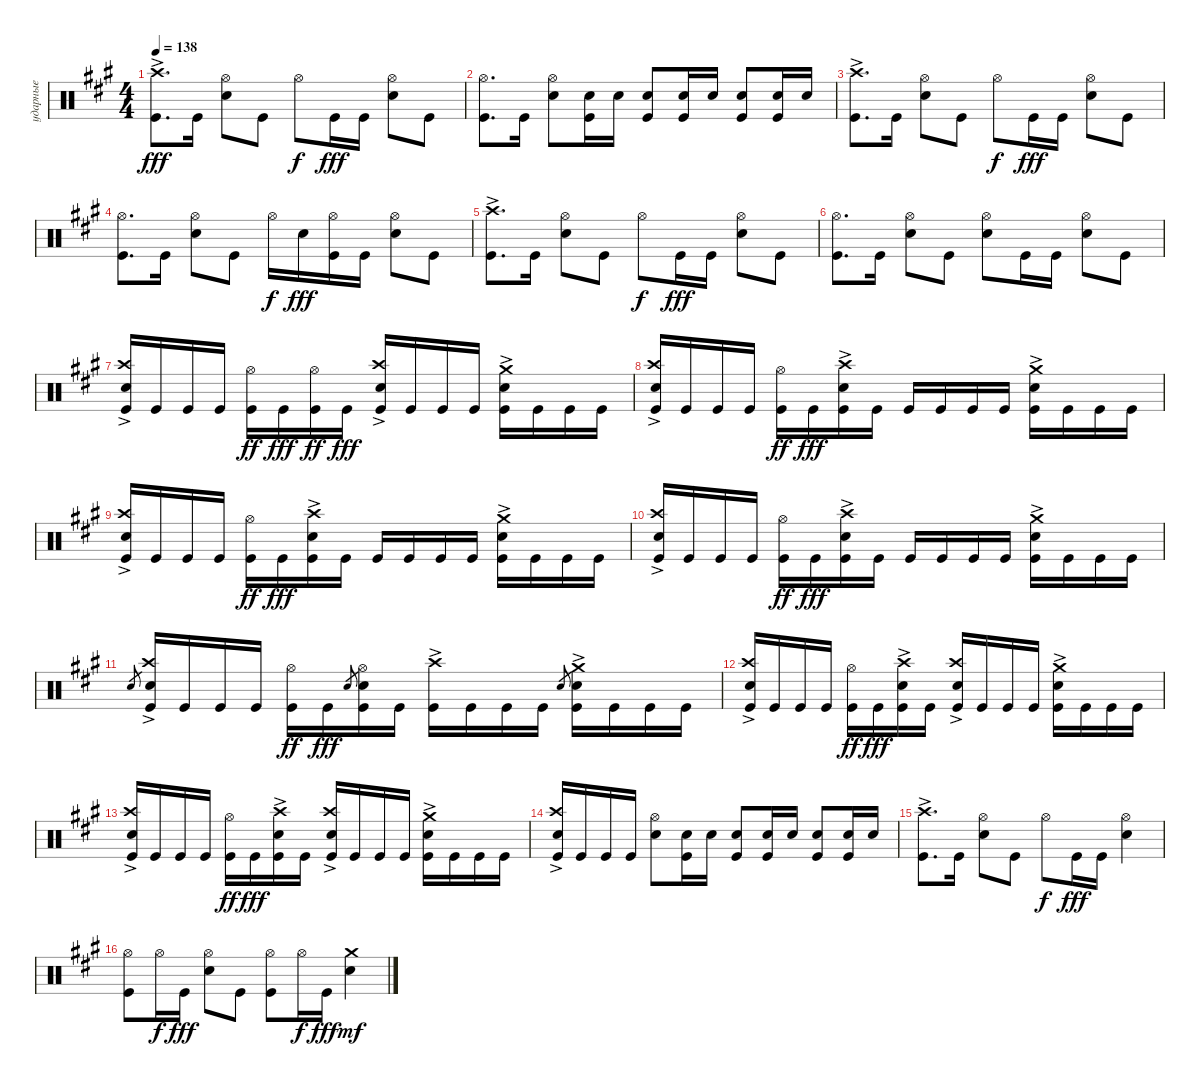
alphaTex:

\track ("ударные" "ударные") {instrument percussion}
\staff {score}
\articulation defaults
\ts (4 4)
\tempo 138
\clef neutral
\ks f#minor
("Kick (hit)" "Crash high (hit)"{ac}).8{d dy fff} "Kick (hit)".16 ("Snare (hit) 2" "Hi-Hat (open)").8 "Kick (hit)".8 "Hi-Hat (open)".8{dy f} "Kick (hit)".16{dy fff} "Kick (hit)".16 ("Snare (hit) 2" "Hi-Hat (open)").8 "Kick (hit)".8 |
("Kick (hit)" "Hi-Hat (open)").8{d} "Kick (hit)".16 ("Snare (hit) 2" "Hi-Hat (open)").8 ("Snare (hit) 2" "Kick (hit)").16 "Snare (hit) 2".16 ("Snare (hit) 2" "Kick (hit)").8 ("Snare (hit) 2" "Kick (hit)").16 "Snare (hit) 2".16 ("Snare (hit) 2" "Kick (hit)").8 ("Snare (hit) 2" "Kick (hit)").16 "Snare (hit) 2".16 |
("Kick (hit)" "Crash high (hit)"{ac}).8{d} "Kick (hit)".16 ("Snare (hit) 2" "Hi-Hat (open)").8 "Kick (hit)".8 "Hi-Hat (open)".8{dy f} "Kick (hit)".16{dy fff} "Kick (hit)".16 ("Snare (hit) 2" "Hi-Hat (open)").8 "Kick (hit)".8 |
("Kick (hit)" "Hi-Hat (open)").8{d} "Kick (hit)".16 ("Snare (hit) 2" "Hi-Hat (open)").8 "Kick (hit)".8 "Hi-Hat (open)".16{dy f} "Snare (hit) 2".16{dy fff} ("Hi-Hat (open)" "Kick (hit)").16 "Kick (hit)".16 ("Snare (hit) 2" "Hi-Hat (open)").8 "Kick (hit)".8 |
("Kick (hit)" "Crash high (hit)"{ac}).8{d} "Kick (hit)".16 ("Snare (hit) 2" "Hi-Hat (open)").8 "Kick (hit)".8 "Hi-Hat (open)".8{dy f} "Kick (hit)".16{dy fff} "Kick (hit)".16 ("Snare (hit) 2" "Hi-Hat (open)").8 "Kick (hit)".8 |
("Kick (hit)" "Hi-Hat (open)").8{d} "Kick (hit)".16 ("Snare (hit) 2" "Hi-Hat (open)").8 "Kick (hit)".8 ("Hi-Hat (open)" "Snare (hit) 2").8 "Kick (hit)".16 "Kick (hit)".16 ("Snare (hit) 2" "Hi-Hat (open)").8 "Kick (hit)".8 |
("Kick (hit)" "Snare (hit) 2" "Crash high (hit)"{ac}).16 "Kick (hit)".16 "Kick (hit)".16 "Kick (hit)".16 ("Kick (hit)" "Hi-Hat (open)").16{dy ff} "Kick (hit)".16{dy fff} ("Kick (hit)" "Hi-Hat (open)").16{dy ff} "Kick (hit)".16{dy fff} ("Kick (hit)" "Snare (hit) 2" "Crash high (hit)"{ac}).16 "Kick (hit)".16 "Kick (hit)".16 "Kick (hit)".16 ("Kick (hit)" "Snare (hit) 2" "Crash medium (hit)"{ac}).16 "Kick (hit)".16 "Kick (hit)".16 "Kick (hit)".16 |
("Kick (hit)" "Snare (hit) 2" "Crash high (hit)"{ac}).16 "Kick (hit)".16 "Kick (hit)".16 "Kick (hit)".16 ("Kick (hit)" "Hi-Hat (open)").16{dy ff} "Kick (hit)".16{dy fff} ("Kick (hit)" "Snare (hit) 2" "Crash high (hit)"{ac}).16 "Kick (hit)".16 "Kick (hit)".16 "Kick (hit)".16 "Kick (hit)".16 "Kick (hit)".16 ("Kick (hit)" "Snare (hit) 2" "Crash medium (hit)"{ac}).16 "Kick (hit)".16 "Kick (hit)".16 "Kick (hit)".16 |
("Kick (hit)" "Snare (hit) 2" "Crash high (hit)"{ac}).16 "Kick (hit)".16 "Kick (hit)".16 "Kick (hit)".16 ("Kick (hit)" "Hi-Hat (open)").16{dy ff} "Kick (hit)".16{dy fff} ("Kick (hit)" "Snare (hit) 2" "Crash high (hit)"{ac}).16 "Kick (hit)".16 "Kick (hit)".16 "Kick (hit)".16 "Kick (hit)".16 "Kick (hit)".16 ("Kick (hit)" "Snare (hit) 2" "Crash medium (hit)"{ac}).16 "Kick (hit)".16 "Kick (hit)".16 "Kick (hit)".16 |
("Kick (hit)" "Snare (hit) 2" "Crash high (hit)"{ac}).16 "Kick (hit)".16 "Kick (hit)".16 "Kick (hit)".16 ("Kick (hit)" "Hi-Hat (open)").16{dy ff} "Kick (hit)".16{dy fff} ("Kick (hit)" "Snare (hit) 2" "Crash high (hit)"{ac}).16 "Kick (hit)".16 "Kick (hit)".16 "Kick (hit)".16 "Kick (hit)".16 "Kick (hit)".16 ("Kick (hit)" "Snare (hit) 2" "Crash medium (hit)"{ac}).16 "Kick (hit)".16 "Kick (hit)".16 "Kick (hit)".16 |
"Snare (hit) 2".8{gr} ("Kick (hit)" "Snare (hit) 2" "Crash high (hit)"{ac}).16 "Kick (hit)".16 "Kick (hit)".16 "Kick (hit)".16 ("Kick (hit)" "Hi-Hat (open)").16{dy ff} "Kick (hit)".16{dy fff} "Snare (hit) 2".8{gr} ("Kick (hit)" "Hi-Hat (open)" "Snare (hit) 2").16 "Kick (hit)".16 ("Kick (hit)" "Crash high (hit)"{ac}).16 "Kick (hit)".16 "Kick (hit)".16 "Kick (hit)".16 "Snare (hit) 2".8{gr} ("Kick (hit)" "Snare (hit) 2" "Crash medium (hit)"{ac}).16 "Kick (hit)".16 "Kick (hit)".16 "Kick (hit)".16 |
("Kick (hit)" "Snare (hit) 2" "Crash high (hit)"{ac}).16 "Kick (hit)".16 "Kick (hit)".16 "Kick (hit)".16 ("Kick (hit)" "Hi-Hat (open)").16{dy ff} "Kick (hit)".16{dy fff} ("Kick (hit)" "Snare (hit) 2" "Crash high (hit)"{ac}).16 "Kick (hit)".16 ("Kick (hit)" "Snare (hit) 2" "Crash high (hit)"{ac}).16 "Kick (hit)".16 "Kick (hit)".16 "Kick (hit)".16 ("Kick (hit)" "Snare (hit) 2" "Crash medium (hit)"{ac}).16 "Kick (hit)".16 "Kick (hit)".16 "Kick (hit)".16 |
("Kick (hit)" "Snare (hit) 2" "Crash high (hit)"{ac}).16 "Kick (hit)".16 "Kick (hit)".16 "Kick (hit)".16 ("Kick (hit)" "Hi-Hat (open)").16{dy ff} "Kick (hit)".16{dy fff} ("Kick (hit)" "Snare (hit) 2" "Crash high (hit)"{ac}).16 "Kick (hit)".16 ("Kick (hit)" "Snare (hit) 2" "Crash high (hit)"{ac}).16 "Kick (hit)".16 "Kick (hit)".16 "Kick (hit)".16 ("Kick (hit)" "Snare (hit) 2" "Crash medium (hit)"{ac}).16 "Kick (hit)".16 "Kick (hit)".16 "Kick (hit)".16 |
("Kick (hit)" "Snare (hit) 2" "Crash high (hit)"{ac}).16 "Kick (hit)".16 "Kick (hit)".16 "Kick (hit)".16 ("Snare (hit) 2" "Hi-Hat (open)").8 ("Snare (hit) 2" "Kick (hit)").16 "Snare (hit) 2".16 ("Snare (hit) 2" "Kick (hit)").8 ("Snare (hit) 2" "Kick (hit)").16 "Snare (hit) 2".16 ("Snare (hit) 2" "Kick (hit)").8 ("Snare (hit) 2" "Kick (hit)").16 "Snare (hit) 2".16 |
("Kick (hit)" "Crash high (hit)"{ac}).8{d} "Kick (hit)".16 ("Snare (hit) 2" "Hi-Hat (open)").8 "Kick (hit)".8 "Hi-Hat (open)".8{dy f} "Kick (hit)".16{dy fff} "Kick (hit)".16 ("Snare (hit) 2" "Hi-Hat (open)").4 |
("Hi-Hat (open)" "Kick (hit)").8 "Hi-Hat (open)".16{dy f} "Kick (hit)".16{dy fff} ("Snare (hit) 2" "Hi-Hat (open)").8 "Kick (hit)".8 ("Hi-Hat (open)" "Kick (hit)").8 "Hi-Hat (open)".16{dy f} "Kick (hit)".16{dy fff} ("Snare (hit) 2" "Crash medium (hit)").4{dy mf}
